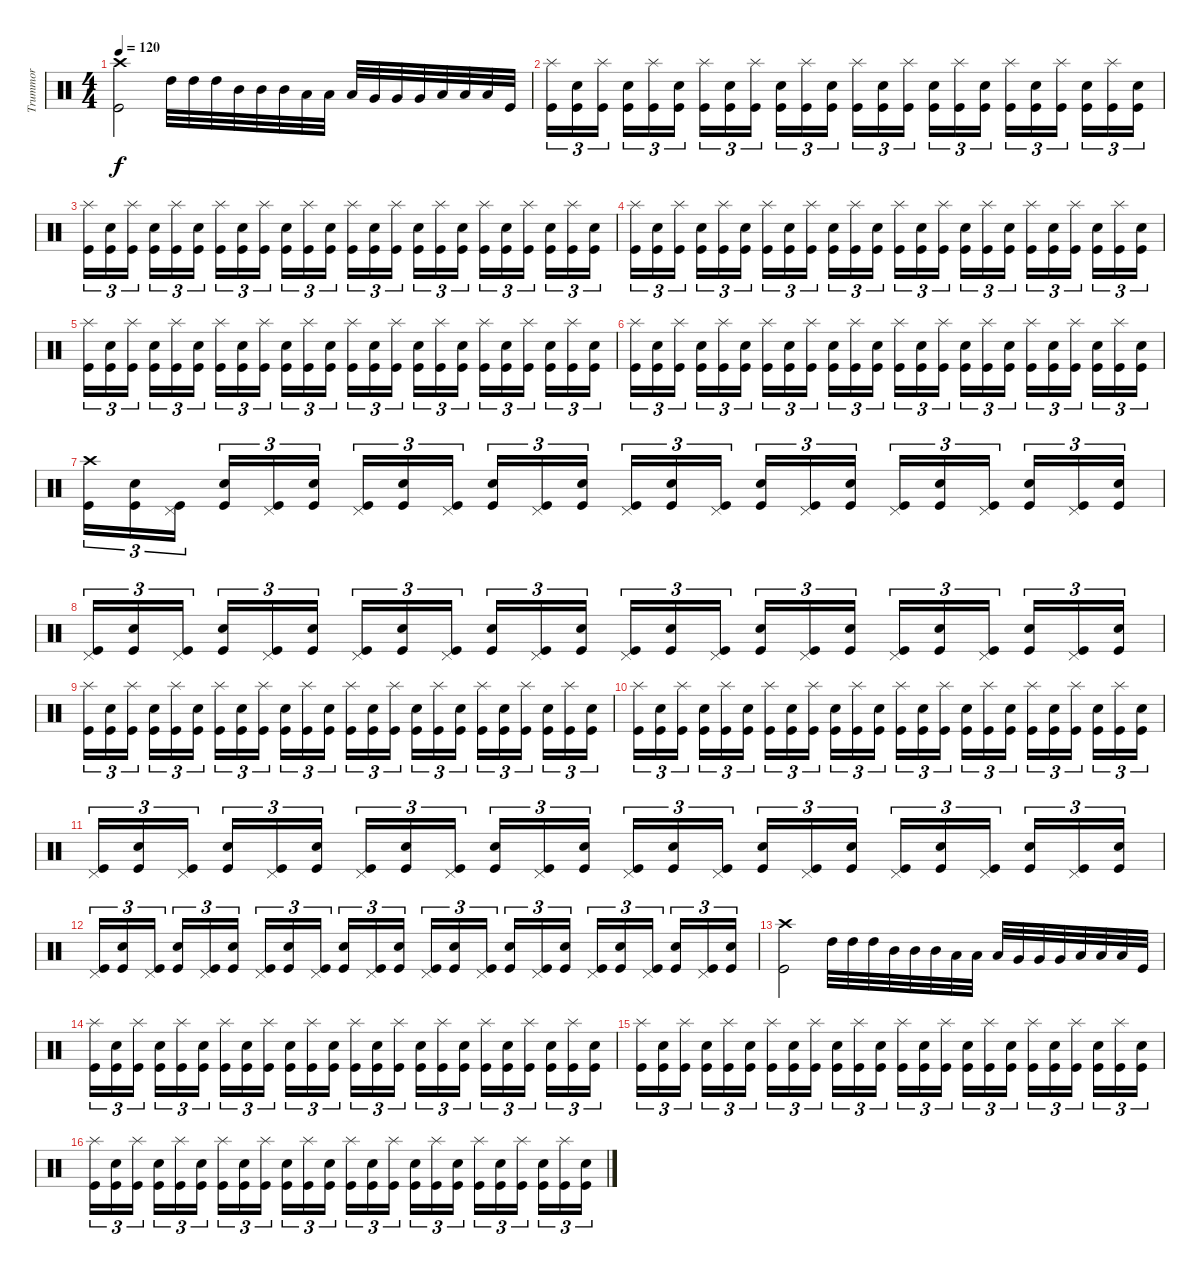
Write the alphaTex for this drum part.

\track ("Trummor" "Trummor") {instrument percussion}
\staff {score}
\articulation defaults
\ts (4 4)
\tempo 120
\clef neutral
\ks c
("Crash high (hit)" "Kick (hit)").2{dy f} "High Tom (hit)".32 "High Tom (hit)".32 "High Tom (hit)".32 "Mid Tom (hit)".32 "Mid Tom (hit)".32 "Mid Tom (hit)".32 "Low Tom (hit)".32 "Low Tom (hit)".32 "Low Tom (hit)".32 "Very Low Tom (hit)".32 "Very Low Tom (hit)".32 "Very Low Tom (hit)".32 "Low Floor Tom (hit)".32 "Low Floor Tom (hit)".32 "Low Floor Tom (hit)".32 "Kick (hit)".32 |
("Splash (hit)" "Kick (hit)").16{tu (3 2)} ("Electric Snare (hit)" "Kick (hit)").16{tu (3 2)} ("Splash (hit)" "Kick (hit)").16{tu (3 2)} ("Electric Snare (hit)" "Kick (hit)").16{tu (3 2)} ("Splash (hit)" "Kick (hit)").16{tu (3 2)} ("Electric Snare (hit)" "Kick (hit)").16{tu (3 2)} ("Splash (hit)" "Kick (hit)").16{tu (3 2)} ("Electric Snare (hit)" "Kick (hit)").16{tu (3 2)} ("Splash (hit)" "Kick (hit)").16{tu (3 2)} ("Electric Snare (hit)" "Kick (hit)").16{tu (3 2)} ("Splash (hit)" "Kick (hit)").16{tu (3 2)} ("Electric Snare (hit)" "Kick (hit)").16{tu (3 2)} ("Splash (hit)" "Kick (hit)").16{tu (3 2)} ("Electric Snare (hit)" "Kick (hit)").16{tu (3 2)} ("Splash (hit)" "Kick (hit)").16{tu (3 2)} ("Electric Snare (hit)" "Kick (hit)").16{tu (3 2)} ("Splash (hit)" "Kick (hit)").16{tu (3 2)} ("Electric Snare (hit)" "Kick (hit)").16{tu (3 2)} ("Splash (hit)" "Kick (hit)").16{tu (3 2)} ("Electric Snare (hit)" "Kick (hit)").16{tu (3 2)} ("Splash (hit)" "Kick (hit)").16{tu (3 2)} ("Electric Snare (hit)" "Kick (hit)").16{tu (3 2)} ("Splash (hit)" "Kick (hit)").16{tu (3 2)} ("Electric Snare (hit)" "Kick (hit)").16{tu (3 2)} |
("Splash (hit)" "Kick (hit)").16{tu (3 2)} ("Electric Snare (hit)" "Kick (hit)").16{tu (3 2)} ("Splash (hit)" "Kick (hit)").16{tu (3 2)} ("Electric Snare (hit)" "Kick (hit)").16{tu (3 2)} ("Splash (hit)" "Kick (hit)").16{tu (3 2)} ("Electric Snare (hit)" "Kick (hit)").16{tu (3 2)} ("Splash (hit)" "Kick (hit)").16{tu (3 2)} ("Electric Snare (hit)" "Kick (hit)").16{tu (3 2)} ("Splash (hit)" "Kick (hit)").16{tu (3 2)} ("Electric Snare (hit)" "Kick (hit)").16{tu (3 2)} ("Splash (hit)" "Kick (hit)").16{tu (3 2)} ("Electric Snare (hit)" "Kick (hit)").16{tu (3 2)} ("Splash (hit)" "Kick (hit)").16{tu (3 2)} ("Electric Snare (hit)" "Kick (hit)").16{tu (3 2)} ("Splash (hit)" "Kick (hit)").16{tu (3 2)} ("Electric Snare (hit)" "Kick (hit)").16{tu (3 2)} ("Splash (hit)" "Kick (hit)").16{tu (3 2)} ("Electric Snare (hit)" "Kick (hit)").16{tu (3 2)} ("Splash (hit)" "Kick (hit)").16{tu (3 2)} ("Electric Snare (hit)" "Kick (hit)").16{tu (3 2)} ("Splash (hit)" "Kick (hit)").16{tu (3 2)} ("Electric Snare (hit)" "Kick (hit)").16{tu (3 2)} ("Splash (hit)" "Kick (hit)").16{tu (3 2)} ("Electric Snare (hit)" "Kick (hit)").16{tu (3 2)} |
("Splash (hit)" "Kick (hit)").16{tu (3 2)} ("Electric Snare (hit)" "Kick (hit)").16{tu (3 2)} ("Splash (hit)" "Kick (hit)").16{tu (3 2)} ("Electric Snare (hit)" "Kick (hit)").16{tu (3 2)} ("Splash (hit)" "Kick (hit)").16{tu (3 2)} ("Electric Snare (hit)" "Kick (hit)").16{tu (3 2)} ("Splash (hit)" "Kick (hit)").16{tu (3 2)} ("Electric Snare (hit)" "Kick (hit)").16{tu (3 2)} ("Splash (hit)" "Kick (hit)").16{tu (3 2)} ("Electric Snare (hit)" "Kick (hit)").16{tu (3 2)} ("Splash (hit)" "Kick (hit)").16{tu (3 2)} ("Electric Snare (hit)" "Kick (hit)").16{tu (3 2)} ("Splash (hit)" "Kick (hit)").16{tu (3 2)} ("Electric Snare (hit)" "Kick (hit)").16{tu (3 2)} ("Splash (hit)" "Kick (hit)").16{tu (3 2)} ("Electric Snare (hit)" "Kick (hit)").16{tu (3 2)} ("Splash (hit)" "Kick (hit)").16{tu (3 2)} ("Electric Snare (hit)" "Kick (hit)").16{tu (3 2)} ("Splash (hit)" "Kick (hit)").16{tu (3 2)} ("Electric Snare (hit)" "Kick (hit)").16{tu (3 2)} ("Splash (hit)" "Kick (hit)").16{tu (3 2)} ("Electric Snare (hit)" "Kick (hit)").16{tu (3 2)} ("Splash (hit)" "Kick (hit)").16{tu (3 2)} ("Electric Snare (hit)" "Kick (hit)").16{tu (3 2)} |
("Splash (hit)" "Kick (hit)").16{tu (3 2)} ("Electric Snare (hit)" "Kick (hit)").16{tu (3 2)} ("Splash (hit)" "Kick (hit)").16{tu (3 2)} ("Electric Snare (hit)" "Kick (hit)").16{tu (3 2)} ("Splash (hit)" "Kick (hit)").16{tu (3 2)} ("Electric Snare (hit)" "Kick (hit)").16{tu (3 2)} ("Splash (hit)" "Kick (hit)").16{tu (3 2)} ("Electric Snare (hit)" "Kick (hit)").16{tu (3 2)} ("Splash (hit)" "Kick (hit)").16{tu (3 2)} ("Electric Snare (hit)" "Kick (hit)").16{tu (3 2)} ("Splash (hit)" "Kick (hit)").16{tu (3 2)} ("Electric Snare (hit)" "Kick (hit)").16{tu (3 2)} ("Splash (hit)" "Kick (hit)").16{tu (3 2)} ("Electric Snare (hit)" "Kick (hit)").16{tu (3 2)} ("Splash (hit)" "Kick (hit)").16{tu (3 2)} ("Electric Snare (hit)" "Kick (hit)").16{tu (3 2)} ("Splash (hit)" "Kick (hit)").16{tu (3 2)} ("Electric Snare (hit)" "Kick (hit)").16{tu (3 2)} ("Splash (hit)" "Kick (hit)").16{tu (3 2)} ("Electric Snare (hit)" "Kick (hit)").16{tu (3 2)} ("Splash (hit)" "Kick (hit)").16{tu (3 2)} ("Electric Snare (hit)" "Kick (hit)").16{tu (3 2)} ("Splash (hit)" "Kick (hit)").16{tu (3 2)} ("Electric Snare (hit)" "Kick (hit)").16{tu (3 2)} |
("Splash (hit)" "Kick (hit)").16{tu (3 2)} ("Electric Snare (hit)" "Kick (hit)").16{tu (3 2)} ("Splash (hit)" "Kick (hit)").16{tu (3 2)} ("Electric Snare (hit)" "Kick (hit)").16{tu (3 2)} ("Splash (hit)" "Kick (hit)").16{tu (3 2)} ("Electric Snare (hit)" "Kick (hit)").16{tu (3 2)} ("Splash (hit)" "Kick (hit)").16{tu (3 2)} ("Electric Snare (hit)" "Kick (hit)").16{tu (3 2)} ("Splash (hit)" "Kick (hit)").16{tu (3 2)} ("Electric Snare (hit)" "Kick (hit)").16{tu (3 2)} ("Splash (hit)" "Kick (hit)").16{tu (3 2)} ("Electric Snare (hit)" "Kick (hit)").16{tu (3 2)} ("Splash (hit)" "Kick (hit)").16{tu (3 2)} ("Electric Snare (hit)" "Kick (hit)").16{tu (3 2)} ("Splash (hit)" "Kick (hit)").16{tu (3 2)} ("Electric Snare (hit)" "Kick (hit)").16{tu (3 2)} ("Splash (hit)" "Kick (hit)").16{tu (3 2)} ("Electric Snare (hit)" "Kick (hit)").16{tu (3 2)} ("Splash (hit)" "Kick (hit)").16{tu (3 2)} ("Electric Snare (hit)" "Kick (hit)").16{tu (3 2)} ("Splash (hit)" "Kick (hit)").16{tu (3 2)} ("Electric Snare (hit)" "Kick (hit)").16{tu (3 2)} ("Splash (hit)" "Kick (hit)").16{tu (3 2)} ("Electric Snare (hit)" "Kick (hit)").16{tu (3 2)} |
("Crash high (hit)" "Kick (hit)").16{tu (3 2)} ("Electric Snare (hit)" "Kick (hit)").16{tu (3 2)} ("Pedal Hi-Hat (hit)" "Kick (hit)").16{tu (3 2)} ("Electric Snare (hit)" "Kick (hit)").16{tu (3 2)} ("Pedal Hi-Hat (hit)" "Kick (hit)").16{tu (3 2)} ("Electric Snare (hit)" "Kick (hit)").16{tu (3 2)} ("Pedal Hi-Hat (hit)" "Kick (hit)").16{tu (3 2)} ("Electric Snare (hit)" "Kick (hit)").16{tu (3 2)} ("Pedal Hi-Hat (hit)" "Kick (hit)").16{tu (3 2)} ("Electric Snare (hit)" "Kick (hit)").16{tu (3 2)} ("Pedal Hi-Hat (hit)" "Kick (hit)").16{tu (3 2)} ("Electric Snare (hit)" "Kick (hit)").16{tu (3 2)} ("Pedal Hi-Hat (hit)" "Kick (hit)").16{tu (3 2)} ("Electric Snare (hit)" "Kick (hit)").16{tu (3 2)} ("Pedal Hi-Hat (hit)" "Kick (hit)").16{tu (3 2)} ("Electric Snare (hit)" "Kick (hit)").16{tu (3 2)} ("Pedal Hi-Hat (hit)" "Kick (hit)").16{tu (3 2)} ("Electric Snare (hit)" "Kick (hit)").16{tu (3 2)} ("Pedal Hi-Hat (hit)" "Kick (hit)").16{tu (3 2)} ("Electric Snare (hit)" "Kick (hit)").16{tu (3 2)} ("Pedal Hi-Hat (hit)" "Kick (hit)").16{tu (3 2)} ("Electric Snare (hit)" "Kick (hit)").16{tu (3 2)} ("Pedal Hi-Hat (hit)" "Kick (hit)").16{tu (3 2)} ("Electric Snare (hit)" "Kick (hit)").16{tu (3 2)} |
("Pedal Hi-Hat (hit)" "Kick (hit)").16{tu (3 2)} ("Electric Snare (hit)" "Kick (hit)").16{tu (3 2)} ("Pedal Hi-Hat (hit)" "Kick (hit)").16{tu (3 2)} ("Electric Snare (hit)" "Kick (hit)").16{tu (3 2)} ("Pedal Hi-Hat (hit)" "Kick (hit)").16{tu (3 2)} ("Electric Snare (hit)" "Kick (hit)").16{tu (3 2)} ("Pedal Hi-Hat (hit)" "Kick (hit)").16{tu (3 2)} ("Electric Snare (hit)" "Kick (hit)").16{tu (3 2)} ("Pedal Hi-Hat (hit)" "Kick (hit)").16{tu (3 2)} ("Electric Snare (hit)" "Kick (hit)").16{tu (3 2)} ("Pedal Hi-Hat (hit)" "Kick (hit)").16{tu (3 2)} ("Electric Snare (hit)" "Kick (hit)").16{tu (3 2)} ("Pedal Hi-Hat (hit)" "Kick (hit)").16{tu (3 2)} ("Electric Snare (hit)" "Kick (hit)").16{tu (3 2)} ("Pedal Hi-Hat (hit)" "Kick (hit)").16{tu (3 2)} ("Electric Snare (hit)" "Kick (hit)").16{tu (3 2)} ("Pedal Hi-Hat (hit)" "Kick (hit)").16{tu (3 2)} ("Electric Snare (hit)" "Kick (hit)").16{tu (3 2)} ("Pedal Hi-Hat (hit)" "Kick (hit)").16{tu (3 2)} ("Electric Snare (hit)" "Kick (hit)").16{tu (3 2)} ("Pedal Hi-Hat (hit)" "Kick (hit)").16{tu (3 2)} ("Electric Snare (hit)" "Kick (hit)").16{tu (3 2)} ("Pedal Hi-Hat (hit)" "Kick (hit)").16{tu (3 2)} ("Electric Snare (hit)" "Kick (hit)").16{tu (3 2)} |
("Splash (hit)" "Kick (hit)").16{tu (3 2)} ("Electric Snare (hit)" "Kick (hit)").16{tu (3 2)} ("Splash (hit)" "Kick (hit)").16{tu (3 2)} ("Electric Snare (hit)" "Kick (hit)").16{tu (3 2)} ("Splash (hit)" "Kick (hit)").16{tu (3 2)} ("Electric Snare (hit)" "Kick (hit)").16{tu (3 2)} ("Splash (hit)" "Kick (hit)").16{tu (3 2)} ("Electric Snare (hit)" "Kick (hit)").16{tu (3 2)} ("Splash (hit)" "Kick (hit)").16{tu (3 2)} ("Electric Snare (hit)" "Kick (hit)").16{tu (3 2)} ("Splash (hit)" "Kick (hit)").16{tu (3 2)} ("Electric Snare (hit)" "Kick (hit)").16{tu (3 2)} ("Splash (hit)" "Kick (hit)").16{tu (3 2)} ("Electric Snare (hit)" "Kick (hit)").16{tu (3 2)} ("Splash (hit)" "Kick (hit)").16{tu (3 2)} ("Electric Snare (hit)" "Kick (hit)").16{tu (3 2)} ("Splash (hit)" "Kick (hit)").16{tu (3 2)} ("Electric Snare (hit)" "Kick (hit)").16{tu (3 2)} ("Splash (hit)" "Kick (hit)").16{tu (3 2)} ("Electric Snare (hit)" "Kick (hit)").16{tu (3 2)} ("Splash (hit)" "Kick (hit)").16{tu (3 2)} ("Electric Snare (hit)" "Kick (hit)").16{tu (3 2)} ("Splash (hit)" "Kick (hit)").16{tu (3 2)} ("Electric Snare (hit)" "Kick (hit)").16{tu (3 2)} |
("Splash (hit)" "Kick (hit)").16{tu (3 2)} ("Electric Snare (hit)" "Kick (hit)").16{tu (3 2)} ("Splash (hit)" "Kick (hit)").16{tu (3 2)} ("Electric Snare (hit)" "Kick (hit)").16{tu (3 2)} ("Splash (hit)" "Kick (hit)").16{tu (3 2)} ("Electric Snare (hit)" "Kick (hit)").16{tu (3 2)} ("Splash (hit)" "Kick (hit)").16{tu (3 2)} ("Electric Snare (hit)" "Kick (hit)").16{tu (3 2)} ("Splash (hit)" "Kick (hit)").16{tu (3 2)} ("Electric Snare (hit)" "Kick (hit)").16{tu (3 2)} ("Splash (hit)" "Kick (hit)").16{tu (3 2)} ("Electric Snare (hit)" "Kick (hit)").16{tu (3 2)} ("Splash (hit)" "Kick (hit)").16{tu (3 2)} ("Electric Snare (hit)" "Kick (hit)").16{tu (3 2)} ("Splash (hit)" "Kick (hit)").16{tu (3 2)} ("Electric Snare (hit)" "Kick (hit)").16{tu (3 2)} ("Splash (hit)" "Kick (hit)").16{tu (3 2)} ("Electric Snare (hit)" "Kick (hit)").16{tu (3 2)} ("Splash (hit)" "Kick (hit)").16{tu (3 2)} ("Electric Snare (hit)" "Kick (hit)").16{tu (3 2)} ("Splash (hit)" "Kick (hit)").16{tu (3 2)} ("Electric Snare (hit)" "Kick (hit)").16{tu (3 2)} ("Splash (hit)" "Kick (hit)").16{tu (3 2)} ("Electric Snare (hit)" "Kick (hit)").16{tu (3 2)} |
("Pedal Hi-Hat (hit)" "Kick (hit)").16{tu (3 2)} ("Electric Snare (hit)" "Kick (hit)").16{tu (3 2)} ("Pedal Hi-Hat (hit)" "Kick (hit)").16{tu (3 2)} ("Electric Snare (hit)" "Kick (hit)").16{tu (3 2)} ("Pedal Hi-Hat (hit)" "Kick (hit)").16{tu (3 2)} ("Electric Snare (hit)" "Kick (hit)").16{tu (3 2)} ("Pedal Hi-Hat (hit)" "Kick (hit)").16{tu (3 2)} ("Electric Snare (hit)" "Kick (hit)").16{tu (3 2)} ("Pedal Hi-Hat (hit)" "Kick (hit)").16{tu (3 2)} ("Electric Snare (hit)" "Kick (hit)").16{tu (3 2)} ("Pedal Hi-Hat (hit)" "Kick (hit)").16{tu (3 2)} ("Electric Snare (hit)" "Kick (hit)").16{tu (3 2)} ("Pedal Hi-Hat (hit)" "Kick (hit)").16{tu (3 2)} ("Electric Snare (hit)" "Kick (hit)").16{tu (3 2)} ("Pedal Hi-Hat (hit)" "Kick (hit)").16{tu (3 2)} ("Electric Snare (hit)" "Kick (hit)").16{tu (3 2)} ("Pedal Hi-Hat (hit)" "Kick (hit)").16{tu (3 2)} ("Electric Snare (hit)" "Kick (hit)").16{tu (3 2)} ("Pedal Hi-Hat (hit)" "Kick (hit)").16{tu (3 2)} ("Electric Snare (hit)" "Kick (hit)").16{tu (3 2)} ("Pedal Hi-Hat (hit)" "Kick (hit)").16{tu (3 2)} ("Electric Snare (hit)" "Kick (hit)").16{tu (3 2)} ("Pedal Hi-Hat (hit)" "Kick (hit)").16{tu (3 2)} ("Electric Snare (hit)" "Kick (hit)").16{tu (3 2)} |
("Pedal Hi-Hat (hit)" "Kick (hit)").16{tu (3 2)} ("Electric Snare (hit)" "Kick (hit)").16{tu (3 2)} ("Pedal Hi-Hat (hit)" "Kick (hit)").16{tu (3 2)} ("Electric Snare (hit)" "Kick (hit)").16{tu (3 2)} ("Pedal Hi-Hat (hit)" "Kick (hit)").16{tu (3 2)} ("Electric Snare (hit)" "Kick (hit)").16{tu (3 2)} ("Pedal Hi-Hat (hit)" "Kick (hit)").16{tu (3 2)} ("Electric Snare (hit)" "Kick (hit)").16{tu (3 2)} ("Pedal Hi-Hat (hit)" "Kick (hit)").16{tu (3 2)} ("Electric Snare (hit)" "Kick (hit)").16{tu (3 2)} ("Pedal Hi-Hat (hit)" "Kick (hit)").16{tu (3 2)} ("Electric Snare (hit)" "Kick (hit)").16{tu (3 2)} ("Pedal Hi-Hat (hit)" "Kick (hit)").16{tu (3 2)} ("Electric Snare (hit)" "Kick (hit)").16{tu (3 2)} ("Pedal Hi-Hat (hit)" "Kick (hit)").16{tu (3 2)} ("Electric Snare (hit)" "Kick (hit)").16{tu (3 2)} ("Pedal Hi-Hat (hit)" "Kick (hit)").16{tu (3 2)} ("Electric Snare (hit)" "Kick (hit)").16{tu (3 2)} ("Pedal Hi-Hat (hit)" "Kick (hit)").16{tu (3 2)} ("Electric Snare (hit)" "Kick (hit)").16{tu (3 2)} ("Pedal Hi-Hat (hit)" "Kick (hit)").16{tu (3 2)} ("Electric Snare (hit)" "Kick (hit)").16{tu (3 2)} ("Pedal Hi-Hat (hit)" "Kick (hit)").16{tu (3 2)} ("Electric Snare (hit)" "Kick (hit)").16{tu (3 2)} |
("Crash high (hit)" "Kick (hit)").2 "High Tom (hit)".32 "High Tom (hit)".32 "High Tom (hit)".32 "Mid Tom (hit)".32 "Mid Tom (hit)".32 "Mid Tom (hit)".32 "Low Tom (hit)".32 "Low Tom (hit)".32 "Low Tom (hit)".32 "Very Low Tom (hit)".32 "Very Low Tom (hit)".32 "Very Low Tom (hit)".32 "Low Floor Tom (hit)".32 "Low Floor Tom (hit)".32 "Low Floor Tom (hit)".32 "Kick (hit)".32 |
("Splash (hit)" "Kick (hit)").16{tu (3 2)} ("Electric Snare (hit)" "Kick (hit)").16{tu (3 2)} ("Splash (hit)" "Kick (hit)").16{tu (3 2)} ("Electric Snare (hit)" "Kick (hit)").16{tu (3 2)} ("Splash (hit)" "Kick (hit)").16{tu (3 2)} ("Electric Snare (hit)" "Kick (hit)").16{tu (3 2)} ("Splash (hit)" "Kick (hit)").16{tu (3 2)} ("Electric Snare (hit)" "Kick (hit)").16{tu (3 2)} ("Splash (hit)" "Kick (hit)").16{tu (3 2)} ("Electric Snare (hit)" "Kick (hit)").16{tu (3 2)} ("Splash (hit)" "Kick (hit)").16{tu (3 2)} ("Electric Snare (hit)" "Kick (hit)").16{tu (3 2)} ("Splash (hit)" "Kick (hit)").16{tu (3 2)} ("Electric Snare (hit)" "Kick (hit)").16{tu (3 2)} ("Splash (hit)" "Kick (hit)").16{tu (3 2)} ("Electric Snare (hit)" "Kick (hit)").16{tu (3 2)} ("Splash (hit)" "Kick (hit)").16{tu (3 2)} ("Electric Snare (hit)" "Kick (hit)").16{tu (3 2)} ("Splash (hit)" "Kick (hit)").16{tu (3 2)} ("Electric Snare (hit)" "Kick (hit)").16{tu (3 2)} ("Splash (hit)" "Kick (hit)").16{tu (3 2)} ("Electric Snare (hit)" "Kick (hit)").16{tu (3 2)} ("Splash (hit)" "Kick (hit)").16{tu (3 2)} ("Electric Snare (hit)" "Kick (hit)").16{tu (3 2)} |
("Splash (hit)" "Kick (hit)").16{tu (3 2)} ("Electric Snare (hit)" "Kick (hit)").16{tu (3 2)} ("Splash (hit)" "Kick (hit)").16{tu (3 2)} ("Electric Snare (hit)" "Kick (hit)").16{tu (3 2)} ("Splash (hit)" "Kick (hit)").16{tu (3 2)} ("Electric Snare (hit)" "Kick (hit)").16{tu (3 2)} ("Splash (hit)" "Kick (hit)").16{tu (3 2)} ("Electric Snare (hit)" "Kick (hit)").16{tu (3 2)} ("Splash (hit)" "Kick (hit)").16{tu (3 2)} ("Electric Snare (hit)" "Kick (hit)").16{tu (3 2)} ("Splash (hit)" "Kick (hit)").16{tu (3 2)} ("Electric Snare (hit)" "Kick (hit)").16{tu (3 2)} ("Splash (hit)" "Kick (hit)").16{tu (3 2)} ("Electric Snare (hit)" "Kick (hit)").16{tu (3 2)} ("Splash (hit)" "Kick (hit)").16{tu (3 2)} ("Electric Snare (hit)" "Kick (hit)").16{tu (3 2)} ("Splash (hit)" "Kick (hit)").16{tu (3 2)} ("Electric Snare (hit)" "Kick (hit)").16{tu (3 2)} ("Splash (hit)" "Kick (hit)").16{tu (3 2)} ("Electric Snare (hit)" "Kick (hit)").16{tu (3 2)} ("Splash (hit)" "Kick (hit)").16{tu (3 2)} ("Electric Snare (hit)" "Kick (hit)").16{tu (3 2)} ("Splash (hit)" "Kick (hit)").16{tu (3 2)} ("Electric Snare (hit)" "Kick (hit)").16{tu (3 2)} |
("Splash (hit)" "Kick (hit)").16{tu (3 2)} ("Electric Snare (hit)" "Kick (hit)").16{tu (3 2)} ("Splash (hit)" "Kick (hit)").16{tu (3 2)} ("Electric Snare (hit)" "Kick (hit)").16{tu (3 2)} ("Splash (hit)" "Kick (hit)").16{tu (3 2)} ("Electric Snare (hit)" "Kick (hit)").16{tu (3 2)} ("Splash (hit)" "Kick (hit)").16{tu (3 2)} ("Electric Snare (hit)" "Kick (hit)").16{tu (3 2)} ("Splash (hit)" "Kick (hit)").16{tu (3 2)} ("Electric Snare (hit)" "Kick (hit)").16{tu (3 2)} ("Splash (hit)" "Kick (hit)").16{tu (3 2)} ("Electric Snare (hit)" "Kick (hit)").16{tu (3 2)} ("Splash (hit)" "Kick (hit)").16{tu (3 2)} ("Electric Snare (hit)" "Kick (hit)").16{tu (3 2)} ("Splash (hit)" "Kick (hit)").16{tu (3 2)} ("Electric Snare (hit)" "Kick (hit)").16{tu (3 2)} ("Splash (hit)" "Kick (hit)").16{tu (3 2)} ("Electric Snare (hit)" "Kick (hit)").16{tu (3 2)} ("Splash (hit)" "Kick (hit)").16{tu (3 2)} ("Electric Snare (hit)" "Kick (hit)").16{tu (3 2)} ("Splash (hit)" "Kick (hit)").16{tu (3 2)} ("Electric Snare (hit)" "Kick (hit)").16{tu (3 2)} ("Splash (hit)" "Kick (hit)").16{tu (3 2)} ("Electric Snare (hit)" "Kick (hit)").16{tu (3 2)}
